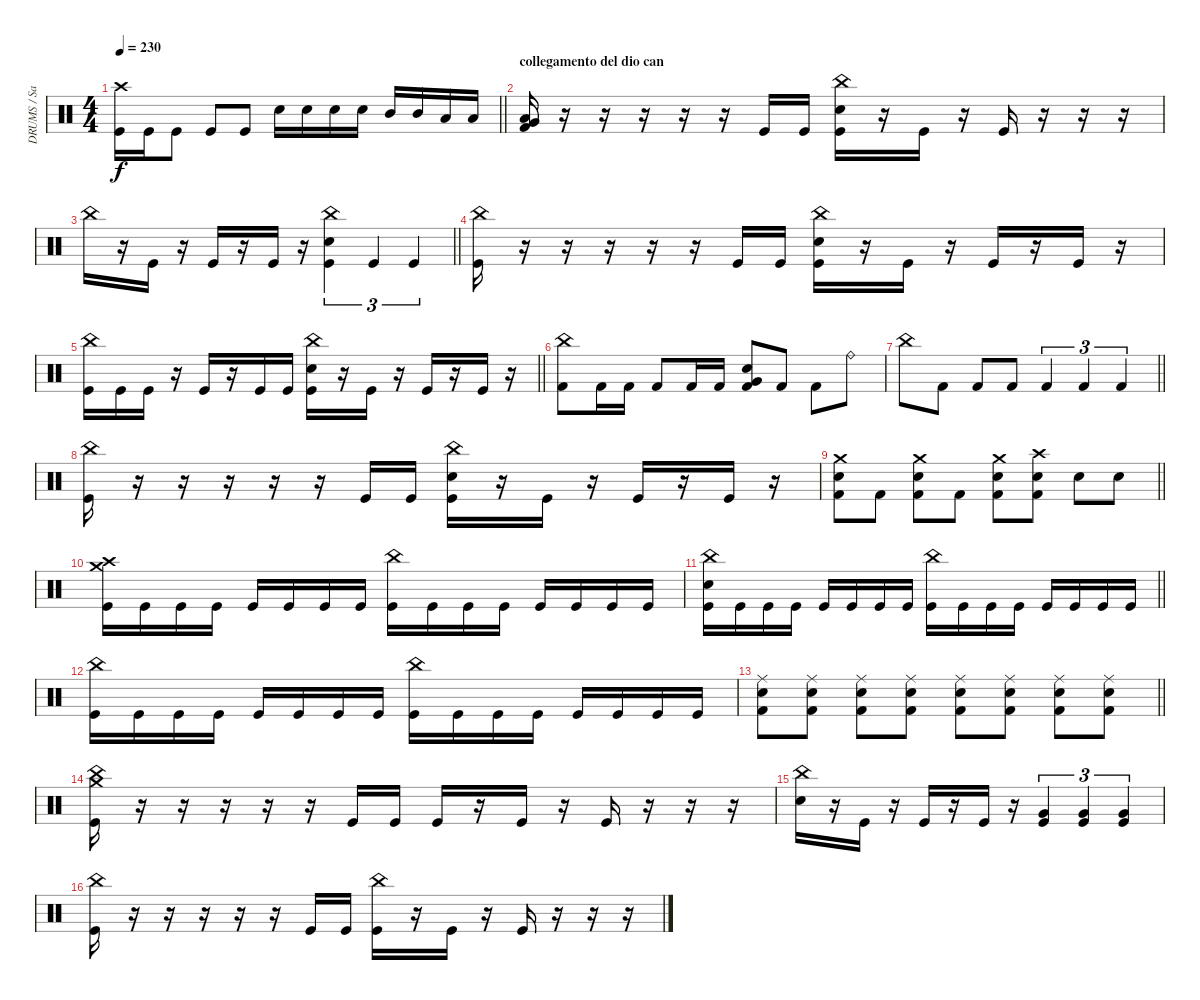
\track ("DRUMS / Sasha" "DRUMS / Sa") {instrument percussion}
\staff {score}
\articulation defaults
\ts (4 4)
\tempo 230
\clef neutral
\barLineRight lightlight
\ks c
("Kick (hit)" "Crash high (hit)").16{dy f} "Kick (hit)".16 "Kick (hit)".8 "Kick (hit)".8 "Kick (hit)".8 "Snare (hit) 2".16 "Snare (hit) 2".16 "Snare (hit) 2".16 "Snare (hit) 2".16 "Mid Tom (hit)".16 "Mid Tom (hit)".16 "Low Tom (hit)".16 "Low Tom (hit)".16 |
\section ("" "collegamento del dio can")
("Very Low Tom (hit)" "Low Tom (hit)" "Kick (hit) 2").16 r.16 r.16 r.16 r.16 r.16 "Kick (hit)".16 "Kick (hit)".16 ("Kick (hit)" "China (hit)" "Snare (hit) 2").16 r.16 "Kick (hit)".16 r.16 "Kick (hit)".16 r.16 r.16 r.16 |
\barLineRight lightlight "China (hit)".16
r.16 "Kick (hit)".16 r.16 "Kick (hit)".16 r.16 "Kick (hit)".16 r.16 ("China (hit)" "Kick (hit)" "Snare (hit) 2").4{tu (3 2)} "Kick (hit)".4{tu (3 2)} "Kick (hit)".4{tu (3 2)} |
("Kick (hit)" "China (hit)").16 r.16 r.16 r.16 r.16 r.16 "Kick (hit)".16 "Kick (hit)".16 ("Kick (hit)" "China (hit)" "Snare (hit) 2").16 r.16 "Kick (hit)".16 r.16 "Kick (hit)".16 r.16 "Kick (hit)".16 r.16 |
\barLineRight lightlight
("Kick (hit)" "China (hit)").16 "Kick (hit)".16 "Kick (hit)".16 r.16 "Kick (hit)".16 r.16 "Kick (hit)".16 "Kick (hit)".16 ("Kick (hit)" "China (hit)" "Snare (hit) 2").16 r.16 "Kick (hit)".16 r.16 "Kick (hit)".16 r.16 "Kick (hit)".16 r.16 |
("China (hit)" "Kick (hit) 2").8 "Kick (hit) 2".16 "Kick (hit) 2".16 "Kick (hit) 2".8 "Kick (hit) 2".16 "Kick (hit) 2".16 ("Electric Snare (hit)" "Very Low Tom (hit)" "Kick (hit) 2").8 "Kick (hit) 2".8 "Kick (hit) 2".8 "Ride (bell)".8 |
\barLineRight lightlight "China (hit)".8 "Kick (hit) 2".8 "Kick (hit) 2".8 "Kick (hit) 2".8 "Kick (hit) 2".4{tu (3 2)} "Kick (hit) 2".4{tu (3 2)} "Kick (hit) 2".4{tu (3 2)}
|
("Kick (hit)" "China (hit)").16 r.16 r.16 r.16 r.16 r.16 "Kick (hit)".16 "Kick (hit)".16 ("Kick (hit)" "China (hit)" "Snare (hit) 2").16 r.16 "Kick (hit)".16 r.16 "Kick (hit)".16 r.16 "Kick (hit)".16 r.16 |
\barLineRight lightlight
("Crash medium (hit)" "Electric Snare (hit)" "Kick (hit) 2").8 "Kick (hit) 2".8 ("Crash medium (hit)" "Electric Snare (hit)" "Kick (hit) 2").8 "Kick (hit) 2".8 ("Crash medium (hit)" "Electric Snare (hit)" "Kick (hit) 2").8 ("Crash high (hit)" "Electric Snare (hit)" "Kick (hit) 2").8 "Electric Snare (hit)".8 "Electric Snare (hit)".8 |
("Kick (hit)" "Crash medium (hit)" "Crash high (hit)").16 "Kick (hit)".16 "Kick (hit)".16 "Kick (hit)".16 "Kick (hit)".16 "Kick (hit)".16 "Kick (hit)".16 "Kick (hit)".16 ("Kick (hit)" "China (hit)").16 "Kick (hit)".16 "Kick (hit)".16 "Kick (hit)".16 "Kick (hit)".16 "Kick (hit)".16 "Kick (hit)".16 "Kick (hit)".16 |
\barLineRight lightlight
("China (hit)" "Snare (hit) 2" "Kick (hit)").16 "Kick (hit)".16 "Kick (hit)".16 "Kick (hit)".16 "Kick (hit)".16 "Kick (hit)".16 "Kick (hit)".16 "Kick (hit)".16 ("Kick (hit)" "China (hit)").16 "Kick (hit)".16 "Kick (hit)".16 "Kick (hit)".16 "Kick (hit)".16 "Kick (hit)".16 "Kick (hit)".16 "Kick (hit)".16 |
("Kick (hit)" "China (hit)").16 "Kick (hit)".16 "Kick (hit)".16 "Kick (hit)".16 "Kick (hit)".16 "Kick (hit)".16 "Kick (hit)".16 "Kick (hit)".16 ("Kick (hit)" "China (hit)").16 "Kick (hit)".16 "Kick (hit)".16 "Kick (hit)".16 "Kick (hit)".16 "Kick (hit)".16 "Kick (hit)".16 "Kick (hit)".16 |
\barLineRight lightlight
("Ride (middle)" "Electric Snare (hit)" "Kick (hit) 2").8 ("Ride (middle)" "Electric Snare (hit)" "Kick (hit) 2").8 ("Ride (middle)" "Electric Snare (hit)" "Kick (hit) 2").8 ("Ride (middle)" "Electric Snare (hit)" "Kick (hit) 2").8 ("Ride (middle)" "Electric Snare (hit)" "Kick (hit) 2").8 ("Ride (middle)" "Electric Snare (hit)" "Kick (hit) 2").8 ("Ride (middle)" "Electric Snare (hit)" "Kick (hit) 2").8 ("Ride (middle)" "Electric Snare (hit)" "Kick (hit) 2").8 |
("Kick (hit)" "Crash medium (hit)" "China (hit)").16 r.16 r.16 r.16 r.16 r.16 "Kick (hit)".16 "Kick (hit)".16 "Kick (hit)".16 r.16 "Kick (hit)".16 r.16 "Kick (hit)".16 r.16 r.16 r.16 |
("China (hit)" "Snare (hit) 2").16 r.16 "Kick (hit)".16 r.16 "Kick (hit)".16 r.16 "Kick (hit)".16 r.16 ("Very Low Tom (hit)" "Kick (hit)").4{tu (3 2)} ("Very Low Tom (hit)" "Kick (hit)").4{tu (3 2)} ("Very Low Tom (hit)" "Kick (hit)").4{tu (3 2)} |
("Kick (hit)" "China (hit)").16 r.16 r.16 r.16 r.16 r.16 "Kick (hit)".16 "Kick (hit)".16 ("Kick (hit)" "China (hit)").16 r.16 "Kick (hit)".16 r.16 "Kick (hit)".16 r.16 r.16 r.16
